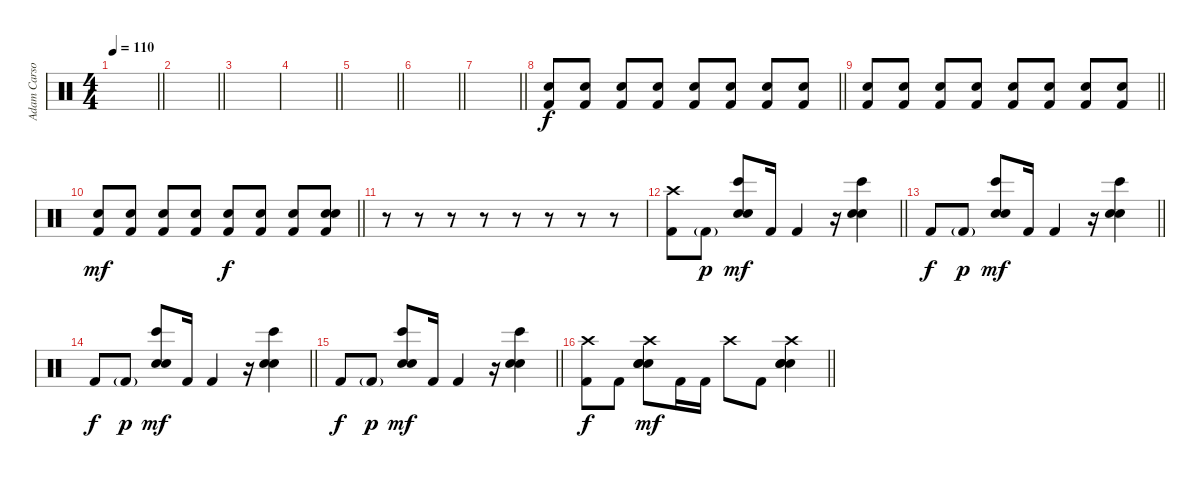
\track ("Adam Carson" "Adam Carso") {instrument percussion}
\staff {score}
\articulation defaults
\ts (4 4)
\tempo 110
\clef neutral
\barLineRight lightlight
\ks c
|
\barLineRight lightlight
|
|
\barLineRight lightlight
|
\barLineRight lightlight
|
\barLineRight lightlight
|
\barLineRight lightlight
|
\barLineRight lightlight
("Electric Snare (hit)" "Kick (hit) 2").8{bd 60} ("Electric Snare (hit)" "Kick (hit) 2").8{bd 60} ("Electric Snare (hit)" "Kick (hit) 2").8{bd 60} ("Electric Snare (hit)" "Kick (hit) 2").8{bd 60} ("Electric Snare (hit)" "Kick (hit) 2").8{bu 60} ("Electric Snare (hit)" "Kick (hit) 2").8{bd 60} ("Electric Snare (hit)" "Kick (hit) 2").8{bd 60} ("Electric Snare (hit)" "Kick (hit) 2").8{bd 60} |
\barLineRight lightlight
("Electric Snare (hit)" "Kick (hit) 2").8{bd 60} ("Electric Snare (hit)" "Kick (hit) 2").8{bd 60} ("Electric Snare (hit)" "Kick (hit) 2").8{bd 60} ("Electric Snare (hit)" "Kick (hit) 2").8{bd 60} ("Electric Snare (hit)" "Kick (hit) 2").8{bu 60} ("Electric Snare (hit)" "Kick (hit) 2").8{bd 60} ("Electric Snare (hit)" "Kick (hit) 2").8{bd 60} ("Electric Snare (hit)" "Kick (hit) 2").8{bd 60} |
\barLineRight lightlight
("Electric Snare (hit)" "Kick (hit) 2").8{bd 60 dy mf} ("Electric Snare (hit)" "Kick (hit) 2").8{bd 60} ("Electric Snare (hit)" "Kick (hit) 2").8{bd 60} ("Electric Snare (hit)" "Kick (hit) 2").8{bd 60} ("Electric Snare (hit)" "Kick (hit) 2").8{bu 60 dy f} ("Electric Snare (hit)" "Kick (hit) 2").8{bd 60} ("Electric Snare (hit)" "Kick (hit) 2").8{bd 60} ("Electric Snare (hit)" "Electric Snare (hit)" "Kick (hit) 2").8{bd 60} |
r.8 r.8 r.8 r.8 r.8 r.8 r.8 r.8 |
\barLineRight lightlight
("Crash high (hit)" "Kick (hit) 2").8 "Kick (hit) 2"{g}.8{dy p} ("Bongo High (hit)" "Hand Clap (hit)" "Electric Snare (hit)").8{dy mf} "Kick (hit) 2".16 "Kick (hit) 2".4 r.16 ("Bongo High (hit)" "Hand Clap (hit)" "Electric Snare (hit)").4 |
\barLineRight lightlight "Kick (hit) 2".8{dy f} "Kick (hit) 2"{g}.8{dy p}
("Bongo High (hit)" "Hand Clap (hit)" "Electric Snare (hit)").8{dy mf} "Kick (hit) 2".16 "Kick (hit) 2".4 r.16 ("Bongo High (hit)" "Hand Clap (hit)" "Electric Snare (hit)").4 |
\barLineRight lightlight "Kick (hit) 2".8{dy f} "Kick (hit) 2"{g}.8{dy p}
("Bongo High (hit)" "Hand Clap (hit)" "Electric Snare (hit)").8{dy mf} "Kick (hit) 2".16 "Kick (hit) 2".4 r.16 ("Bongo High (hit)" "Hand Clap (hit)" "Electric Snare (hit)").4 |
\barLineRight lightlight "Kick (hit) 2".8{dy f} "Kick (hit) 2"{g}.8{dy p}
("Bongo High (hit)" "Hand Clap (hit)" "Electric Snare (hit)").8{dy mf} "Kick (hit) 2".16 "Kick (hit) 2".4 r.16 ("Bongo High (hit)" "Hand Clap (hit)" "Electric Snare (hit)").4 |
\barLineRight lightlight
("Crash high (hit)" "Kick (hit) 2").8{dy f} "Kick (hit) 2".8 ("Snare (hit) 2" "Hand Clap (hit)" "Snare (hit) 2" "Crash high (hit)").8{dy mf} "Kick (hit) 2".16 "Kick (hit) 2".16 "Crash high (hit)".8 "Kick (hit) 2".8 ("Snare (hit) 2" "Hand Clap (hit)" "Snare (hit) 2" "Crash high (hit)").4
